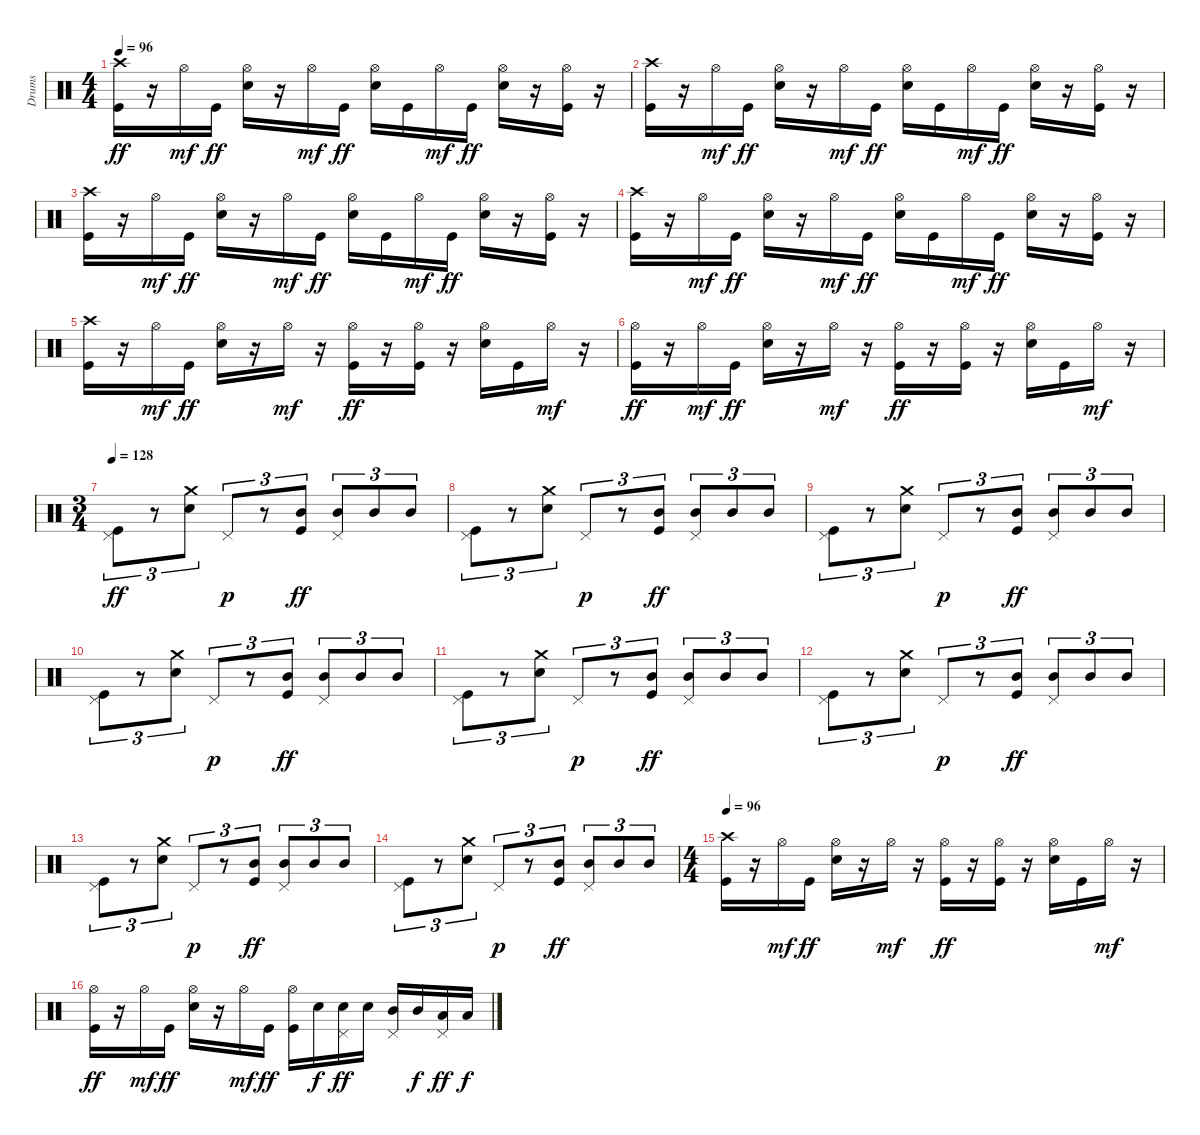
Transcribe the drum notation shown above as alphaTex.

\track ("Drums" "Drums") {instrument percussion}
\staff {score}
\articulation defaults
\ts (4 4)
\tempo 96
\clef neutral
\ks c
("Crash high (hit)" "Kick (hit)").16{dy ff} r.16 "Hi-Hat (open)".16{dy mf} "Kick (hit)".16{dy ff} ("Hi-Hat (open)" "Snare (hit) 2").16 r.16 "Hi-Hat (open)".16{dy mf} "Kick (hit)".16{dy ff} ("Hi-Hat (open)" "Snare (hit) 2").16 "Kick (hit)".16 "Hi-Hat (open)".16{dy mf} "Kick (hit)".16{dy ff} ("Hi-Hat (open)" "Snare (hit) 2").16 r.16 ("Hi-Hat (open)" "Kick (hit)").16 r.16 |
("Crash high (hit)" "Kick (hit)").16 r.16 "Hi-Hat (open)".16{dy mf} "Kick (hit)".16{dy ff} ("Hi-Hat (open)" "Snare (hit) 2").16 r.16 "Hi-Hat (open)".16{dy mf} "Kick (hit)".16{dy ff} ("Hi-Hat (open)" "Snare (hit) 2").16 "Kick (hit)".16 "Hi-Hat (open)".16{dy mf} "Kick (hit)".16{dy ff} ("Hi-Hat (open)" "Snare (hit) 2").16 r.16 ("Hi-Hat (open)" "Kick (hit)").16 r.16 |
("Crash high (hit)" "Kick (hit)").16 r.16 "Hi-Hat (open)".16{dy mf} "Kick (hit)".16{dy ff} ("Hi-Hat (open)" "Snare (hit) 2").16 r.16 "Hi-Hat (open)".16{dy mf} "Kick (hit)".16{dy ff} ("Hi-Hat (open)" "Snare (hit) 2").16 "Kick (hit)".16 "Hi-Hat (open)".16{dy mf} "Kick (hit)".16{dy ff} ("Hi-Hat (open)" "Snare (hit) 2").16 r.16 ("Hi-Hat (open)" "Kick (hit)").16 r.16 |
("Crash high (hit)" "Kick (hit)").16 r.16 "Hi-Hat (open)".16{dy mf} "Kick (hit)".16{dy ff} ("Hi-Hat (open)" "Snare (hit) 2").16 r.16 "Hi-Hat (open)".16{dy mf} "Kick (hit)".16{dy ff} ("Hi-Hat (open)" "Snare (hit) 2").16 "Kick (hit)".16 "Hi-Hat (open)".16{dy mf} "Kick (hit)".16{dy ff} ("Hi-Hat (open)" "Snare (hit) 2").16 r.16 ("Hi-Hat (open)" "Kick (hit)").16 r.16 |
("Crash high (hit)" "Kick (hit)").16 r.16 "Hi-Hat (open)".16{dy mf} "Kick (hit)".16{dy ff} ("Hi-Hat (open)" "Snare (hit) 2").16 r.16 "Hi-Hat (open)".16{dy mf} r.16 ("Hi-Hat (open)" "Kick (hit)").16{dy ff} r.16 ("Hi-Hat (open)" "Kick (hit)").16 r.16 ("Hi-Hat (open)" "Snare (hit) 2").16 "Kick (hit)".16 "Hi-Hat (open)".16{dy mf} r.16 |
("Hi-Hat (open)" "Kick (hit)").16{dy ff} r.16 "Hi-Hat (open)".16{dy mf} "Kick (hit)".16{dy ff} ("Hi-Hat (open)" "Snare (hit) 2").16 r.16 "Hi-Hat (open)".16{dy mf} r.16 ("Hi-Hat (open)" "Kick (hit)").16{dy ff} r.16 ("Hi-Hat (open)" "Kick (hit)").16 r.16 ("Hi-Hat (open)" "Snare (hit) 2").16 "Kick (hit)".16 "Hi-Hat (open)".16{dy mf} r.16 |
\ts (3 4)
\tempo 128
("Pedal Hi-Hat (hit)" "Kick (hit)").8{tu (3 2) dy ff} r.8{tu (3 2)} ("Crash medium (hit)" "Snare (hit) 2").8{tu (3 2)} "Pedal Hi-Hat (hit)".8{tu (3 2) dy p} r.8{tu (3 2)} ("Mid Tom (hit)" "Kick (hit)").8{tu (3 2) dy ff} ("Pedal Hi-Hat (hit)" "Mid Tom (hit)").8{tu (3 2)} "Mid Tom (hit)".8{tu (3 2)} "Mid Tom (hit)".8{tu (3 2)} |
("Pedal Hi-Hat (hit)" "Kick (hit)").8{tu (3 2)} r.8{tu (3 2)} ("Crash medium (hit)" "Snare (hit) 2").8{tu (3 2)} "Pedal Hi-Hat (hit)".8{tu (3 2) dy p} r.8{tu (3 2)} ("Mid Tom (hit)" "Kick (hit)").8{tu (3 2) dy ff} ("Pedal Hi-Hat (hit)" "Mid Tom (hit)").8{tu (3 2)} "Mid Tom (hit)".8{tu (3 2)} "Mid Tom (hit)".8{tu (3 2)} |
("Pedal Hi-Hat (hit)" "Kick (hit)").8{tu (3 2)} r.8{tu (3 2)} ("Crash medium (hit)" "Snare (hit) 2").8{tu (3 2)} "Pedal Hi-Hat (hit)".8{tu (3 2) dy p} r.8{tu (3 2)} ("Mid Tom (hit)" "Kick (hit)").8{tu (3 2) dy ff} ("Pedal Hi-Hat (hit)" "Mid Tom (hit)").8{tu (3 2)} "Mid Tom (hit)".8{tu (3 2)} "Mid Tom (hit)".8{tu (3 2)} |
("Pedal Hi-Hat (hit)" "Kick (hit)").8{tu (3 2)} r.8{tu (3 2)} ("Crash medium (hit)" "Snare (hit) 2").8{tu (3 2)} "Pedal Hi-Hat (hit)".8{tu (3 2) dy p} r.8{tu (3 2)} ("Mid Tom (hit)" "Kick (hit)").8{tu (3 2) dy ff} ("Pedal Hi-Hat (hit)" "Mid Tom (hit)").8{tu (3 2)} "Mid Tom (hit)".8{tu (3 2)} "Mid Tom (hit)".8{tu (3 2)} |
("Pedal Hi-Hat (hit)" "Kick (hit)").8{tu (3 2)} r.8{tu (3 2)} ("Crash medium (hit)" "Snare (hit) 2").8{tu (3 2)} "Pedal Hi-Hat (hit)".8{tu (3 2) dy p} r.8{tu (3 2)} ("Mid Tom (hit)" "Kick (hit)").8{tu (3 2) dy ff} ("Pedal Hi-Hat (hit)" "Mid Tom (hit)").8{tu (3 2)} "Mid Tom (hit)".8{tu (3 2)} "Mid Tom (hit)".8{tu (3 2)} |
("Pedal Hi-Hat (hit)" "Kick (hit)").8{tu (3 2)} r.8{tu (3 2)} ("Crash medium (hit)" "Snare (hit) 2").8{tu (3 2)} "Pedal Hi-Hat (hit)".8{tu (3 2) dy p} r.8{tu (3 2)} ("Mid Tom (hit)" "Kick (hit)").8{tu (3 2) dy ff} ("Pedal Hi-Hat (hit)" "Mid Tom (hit)").8{tu (3 2)} "Mid Tom (hit)".8{tu (3 2)} "Mid Tom (hit)".8{tu (3 2)} |
("Pedal Hi-Hat (hit)" "Kick (hit)").8{tu (3 2)} r.8{tu (3 2)} ("Crash medium (hit)" "Snare (hit) 2").8{tu (3 2)} "Pedal Hi-Hat (hit)".8{tu (3 2) dy p} r.8{tu (3 2)} ("Mid Tom (hit)" "Kick (hit)").8{tu (3 2) dy ff} ("Pedal Hi-Hat (hit)" "Mid Tom (hit)").8{tu (3 2)} "Mid Tom (hit)".8{tu (3 2)} "Mid Tom (hit)".8{tu (3 2)} |
("Pedal Hi-Hat (hit)" "Kick (hit)").8{tu (3 2)} r.8{tu (3 2)} ("Crash medium (hit)" "Snare (hit) 2").8{tu (3 2)} "Pedal Hi-Hat (hit)".8{tu (3 2) dy p} r.8{tu (3 2)} ("Mid Tom (hit)" "Kick (hit)").8{tu (3 2) dy ff} ("Pedal Hi-Hat (hit)" "Mid Tom (hit)").8{tu (3 2)} "Mid Tom (hit)".8{tu (3 2)} "Mid Tom (hit)".8{tu (3 2)} |
\ts (4 4)
\tempo 96
("Crash high (hit)" "Kick (hit)").16 r.16 "Hi-Hat (open)".16{dy mf} "Kick (hit)".16{dy ff} ("Hi-Hat (open)" "Snare (hit) 2").16 r.16 "Hi-Hat (open)".16{dy mf} r.16 ("Hi-Hat (open)" "Kick (hit)").16{dy ff} r.16 ("Hi-Hat (open)" "Kick (hit)").16 r.16 ("Hi-Hat (open)" "Snare (hit) 2").16 "Kick (hit)".16 "Hi-Hat (open)".16{dy mf} r.16 |
("Hi-Hat (open)" "Kick (hit)").16{dy ff} r.16 "Hi-Hat (open)".16{dy mf} "Kick (hit)".16{dy ff} ("Hi-Hat (open)" "Snare (hit) 2").16 r.16 "Hi-Hat (open)".16{dy mf} "Kick (hit)".16{dy ff} ("Hi-Hat (open)" "Kick (hit)").16 "Snare (hit) 2".16{dy f} ("Pedal Hi-Hat (hit)" "Snare (hit) 2").16{dy ff} "Snare (hit) 2".16 ("Pedal Hi-Hat (hit)" "Mid Tom (hit)").16 "Mid Tom (hit)".16{dy f} ("Pedal Hi-Hat (hit)" "Low Tom (hit)").16{dy ff} "Low Tom (hit)".16{dy f}
